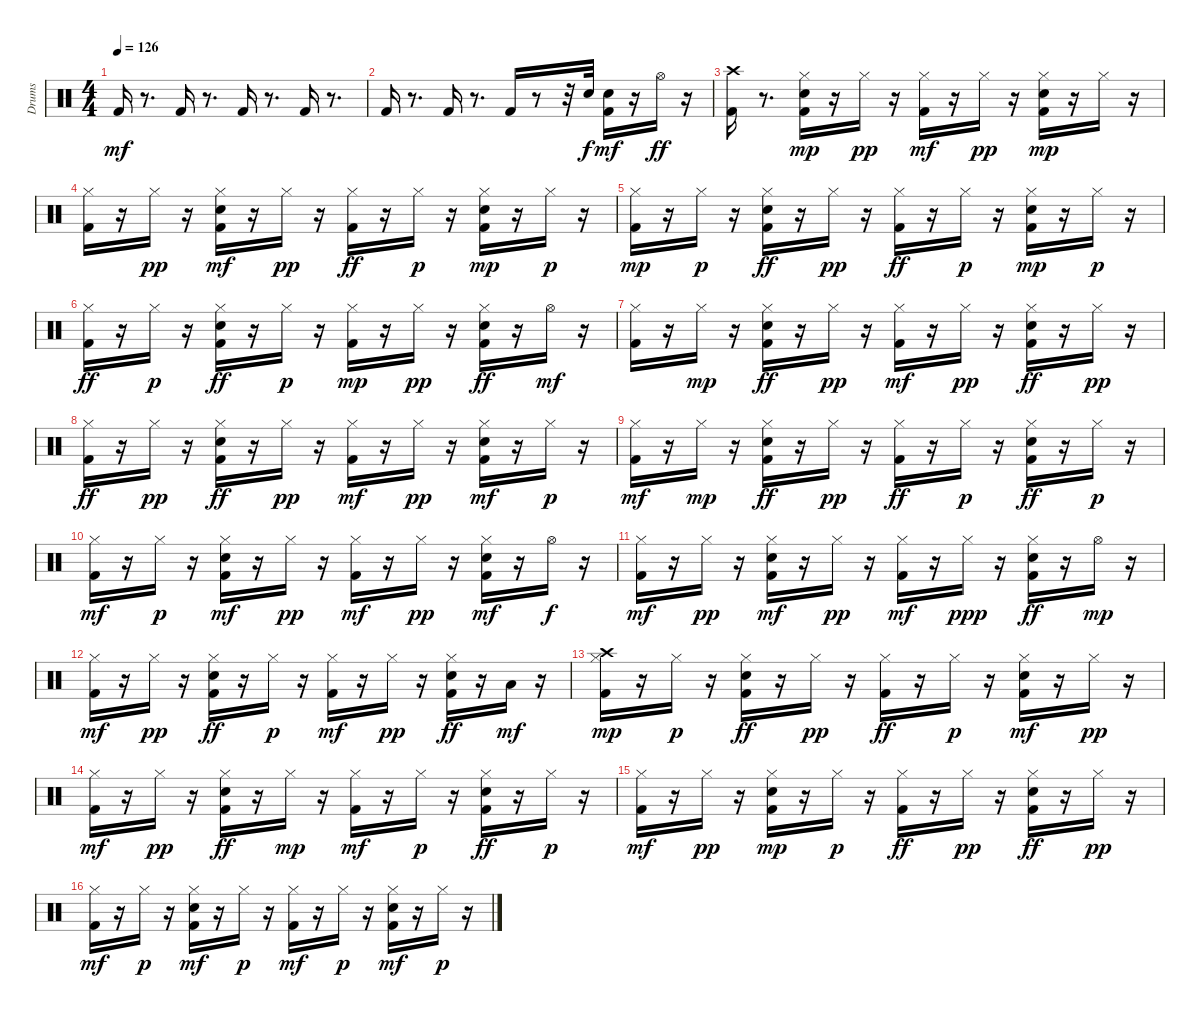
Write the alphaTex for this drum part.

\track ("Drums" "Drums") {instrument percussion}
\staff {score}
\articulation defaults
\ts (4 4)
\tempo 126
\clef neutral
\ks c "Kick (hit) 2".16{dy mf}
r.8{d} "Kick (hit) 2".16 r.8{d} "Kick (hit) 2".16 r.8{d} "Kick (hit) 2".16 r.8{d} |
"Kick (hit) 2".16 r.8{d} "Kick (hit) 2".16 r.8{d} "Kick (hit) 2".16 r.8 r.32 "Snare (hit) 2".32{dy f} ("Snare (hit) 2" "Kick (hit) 2").16{dy mf} r.16 "Hi-Hat (open)".16{dy ff} r.16 |
("Kick (hit) 2" "Crash high (hit)").16 r.8{d} ("Kick (hit) 2" "Snare (hit) 2" "Hi-Hat (closed)").16{dy mp} r.16 "Hi-Hat (closed)".16{dy pp} r.16 ("Kick (hit) 2" "Hi-Hat (closed)").16{dy mf} r.16 "Hi-Hat (closed)".16{dy pp} r.16 ("Snare (hit) 2" "Hi-Hat (closed)" "Kick (hit) 2").16{dy mp} r.16 "Hi-Hat (closed)".16 r.16 |
("Kick (hit) 2" "Hi-Hat (closed)").16 r.16 "Hi-Hat (closed)".16{dy pp} r.16 ("Kick (hit) 2" "Snare (hit) 2" "Hi-Hat (closed)").16{dy mf} r.16 "Hi-Hat (closed)".16{dy pp} r.16 ("Kick (hit) 2" "Hi-Hat (closed)").16{dy ff} r.16 "Hi-Hat (closed)".16{dy p} r.16 ("Kick (hit) 2" "Snare (hit) 2" "Hi-Hat (closed)").16{dy mp} r.16 "Hi-Hat (closed)".16{dy p} r.16 |
("Kick (hit) 2" "Hi-Hat (closed)").16{dy mp} r.16 "Hi-Hat (closed)".16{dy p} r.16 ("Kick (hit) 2" "Hi-Hat (closed)" "Snare (hit) 2").16{dy ff} r.16 "Hi-Hat (closed)".16{dy pp} r.16 ("Kick (hit) 2" "Hi-Hat (closed)").16{dy ff} r.16 "Hi-Hat (closed)".16{dy p} r.16 ("Kick (hit) 2" "Snare (hit) 2" "Hi-Hat (closed)").16{dy mp} r.16 "Hi-Hat (closed)".16{dy p} r.16 |
("Kick (hit) 2" "Hi-Hat (closed)").16{dy ff} r.16 "Hi-Hat (closed)".16{dy p} r.16 ("Kick (hit) 2" "Snare (hit) 2" "Hi-Hat (closed)").16{dy ff} r.16 "Hi-Hat (closed)".16{dy p} r.16 ("Kick (hit) 2" "Hi-Hat (closed)").16{dy mp} r.16 "Hi-Hat (closed)".16{dy pp} r.16 ("Kick (hit) 2" "Hi-Hat (closed)" "Snare (hit) 2").16{dy ff} r.16 "Hi-Hat (open)".16{dy mf} r.16 |
("Kick (hit) 2" "Hi-Hat (closed)").16 r.16 "Hi-Hat (closed)".16{dy mp} r.16 ("Kick (hit) 2" "Snare (hit) 2" "Hi-Hat (closed)").16{dy ff} r.16 "Hi-Hat (closed)".16{dy pp} r.16 ("Hi-Hat (closed)" "Kick (hit) 2").16{dy mf} r.16 "Hi-Hat (closed)".16{dy pp} r.16 ("Kick (hit) 2" "Snare (hit) 2" "Hi-Hat (closed)").16{dy ff} r.16 "Hi-Hat (closed)".16{dy pp} r.16 |
("Kick (hit) 2" "Hi-Hat (closed)").16{dy ff} r.16 "Hi-Hat (closed)".16{dy pp} r.16 ("Kick (hit) 2" "Snare (hit) 2" "Hi-Hat (closed)").16{dy ff} r.16 "Hi-Hat (closed)".16{dy pp} r.16 ("Kick (hit) 2" "Hi-Hat (closed)").16{dy mf} r.16 "Hi-Hat (closed)".16{dy pp} r.16 ("Snare (hit) 2" "Hi-Hat (closed)" "Kick (hit) 2").16{dy mf} r.16 "Hi-Hat (closed)".16{dy p} r.16 |
("Hi-Hat (closed)" "Kick (hit) 2").16{dy mf} r.16 "Hi-Hat (closed)".16{dy mp} r.16 ("Kick (hit) 2" "Hi-Hat (closed)" "Snare (hit) 2").16{dy ff} r.16 "Hi-Hat (closed)".16{dy pp} r.16 ("Kick (hit) 2" "Hi-Hat (closed)").16{dy ff} r.16 "Hi-Hat (closed)".16{dy p} r.16 ("Snare (hit) 2" "Kick (hit) 2" "Hi-Hat (closed)").16{dy ff} r.16 "Hi-Hat (closed)".16{dy p} r.16 |
("Hi-Hat (closed)" "Kick (hit) 2").16{dy mf} r.16 "Hi-Hat (closed)".16{dy p} r.16 ("Kick (hit) 2" "Hi-Hat (closed)" "Snare (hit) 2").16{dy mf} r.16 "Hi-Hat (closed)".16{dy pp} r.16 ("Hi-Hat (closed)" "Kick (hit) 2").16{dy mf} r.16 "Hi-Hat (closed)".16{dy pp} r.16 ("Hi-Hat (closed)" "Kick (hit) 2" "Snare (hit) 2").16{dy mf} r.16 "Hi-Hat (open)".16{dy f} r.16 |
("Kick (hit) 2" "Hi-Hat (closed)").16{dy mf} r.16 "Hi-Hat (closed)".16{dy pp} r.16 ("Snare (hit) 2" "Hi-Hat (closed)" "Kick (hit) 2").16{dy mf} r.16 "Hi-Hat (closed)".16{dy pp} r.16 ("Hi-Hat (closed)" "Kick (hit) 2").16{dy mf} r.16 "Hi-Hat (closed)".16{dy ppp} r.16 ("Hi-Hat (closed)" "Kick (hit) 2" "Snare (hit) 2").16{dy ff} r.16 "Hi-Hat (open)".16{dy mp} r.16 |
("Kick (hit) 2" "Hi-Hat (closed)").16{dy mf} r.16 "Hi-Hat (closed)".16{dy pp} r.16 ("Kick (hit) 2" "Snare (hit) 2" "Hi-Hat (closed)").16{dy ff} r.16 "Hi-Hat (closed)".16{dy p} r.16 ("Kick (hit) 2" "Hi-Hat (closed)").16{dy mf} r.16 "Hi-Hat (closed)".16{dy pp} r.16 ("Kick (hit) 2" "Snare (hit) 2" "Hi-Hat (closed)").16{dy ff} r.16 "Low Floor Tom (hit)".16{dy mf} r.16 |
("Crash high (hit)" "Kick (hit) 2" "Hi-Hat (closed)").16{dy mp} r.16 "Hi-Hat (closed)".16{dy p} r.16 ("Kick (hit) 2" "Hi-Hat (closed)" "Snare (hit) 2").16{dy ff} r.16 "Hi-Hat (closed)".16{dy pp} r.16 ("Kick (hit) 2" "Hi-Hat (closed)").16{dy ff} r.16 "Hi-Hat (closed)".16{dy p} r.16 ("Kick (hit) 2" "Snare (hit) 2" "Hi-Hat (closed)").16{dy mf} r.16 "Hi-Hat (closed)".16{dy pp} r.16 |
("Kick (hit) 2" "Hi-Hat (closed)").16{dy mf} r.16 "Hi-Hat (closed)".16{dy pp} r.16 ("Kick (hit) 2" "Snare (hit) 2" "Hi-Hat (closed)").16{dy ff} r.16 "Hi-Hat (closed)".16{dy mp} r.16 ("Kick (hit) 2" "Hi-Hat (closed)").16{dy mf} r.16 "Hi-Hat (closed)".16{dy p} r.16 ("Hi-Hat (closed)" "Kick (hit) 2" "Snare (hit) 2").16{dy ff} r.16 "Hi-Hat (closed)".16{dy p} r.16 |
("Kick (hit) 2" "Hi-Hat (closed)").16{dy mf} r.16 "Hi-Hat (closed)".16{dy pp} r.16 ("Snare (hit) 2" "Kick (hit) 2" "Hi-Hat (closed)").16{dy mp} r.16 "Hi-Hat (closed)".16{dy p} r.16 ("Kick (hit) 2" "Hi-Hat (closed)").16{dy ff} r.16 "Hi-Hat (closed)".16{dy pp} r.16 ("Kick (hit) 2" "Snare (hit) 2" "Hi-Hat (closed)").16{dy ff} r.16 "Hi-Hat (closed)".16{dy pp} r.16 |
("Kick (hit) 2" "Hi-Hat (closed)").16{dy mf} r.16 "Hi-Hat (closed)".16{dy p} r.16 ("Hi-Hat (closed)" "Kick (hit) 2" "Snare (hit) 2").16{dy mf} r.16 "Hi-Hat (closed)".16{dy p} r.16 ("Kick (hit) 2" "Hi-Hat (closed)").16{dy mf} r.16 "Hi-Hat (closed)".16{dy p} r.16 ("Kick (hit) 2" "Snare (hit) 2" "Hi-Hat (closed)").16{dy mf} r.16 "Hi-Hat (closed)".16{dy p} r.16
